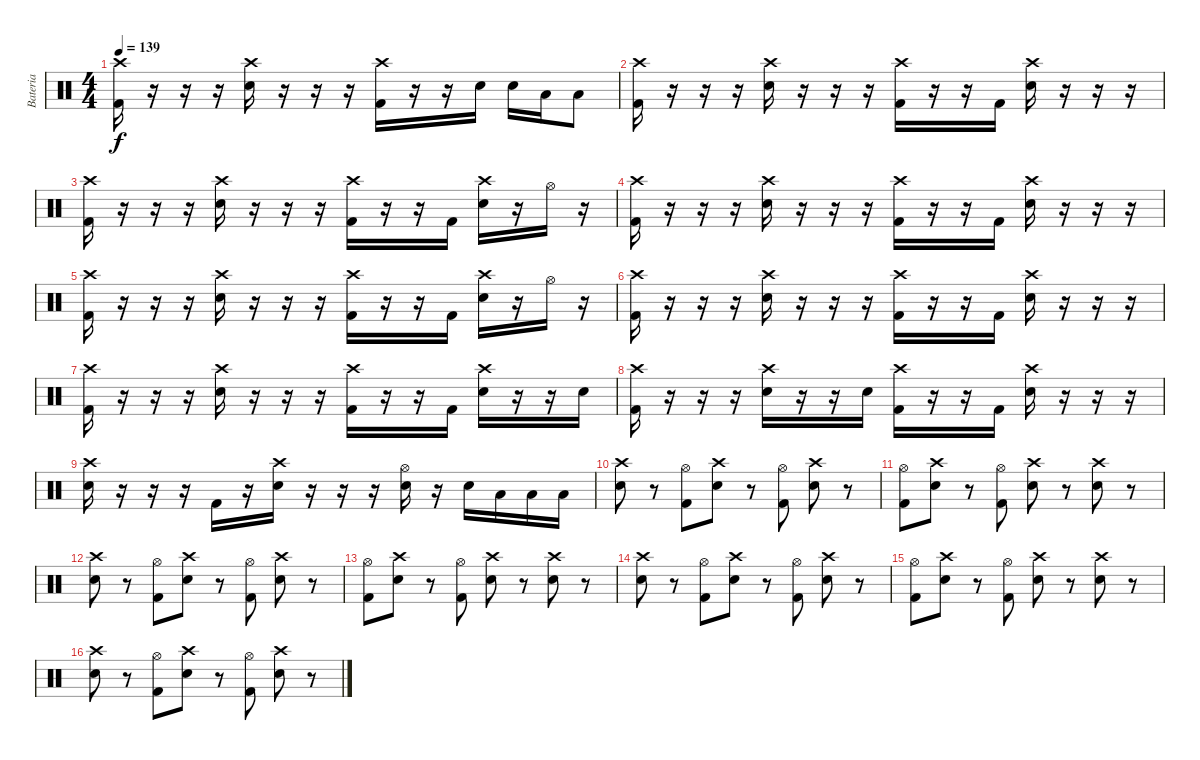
\track ("Bateria" "Bateria") {instrument percussion}
\staff {score}
\articulation defaults
\ts (4 4)
\tempo 139
\clef neutral
\ks c
("Crash high (hit)" "Kick (hit) 2").16{dy f} r.16 r.16 r.16 ("Crash high (hit)" "Electric Snare (hit)").16 r.16 r.16 r.16 ("Crash high (hit)" "Kick (hit) 2").16 r.16 r.16 "Electric Snare (hit)".16 "Electric Snare (hit)".16 "Low Tom (hit)".16 "Low Tom (hit)".8 |
("Crash high (hit)" "Kick (hit) 2").16 r.16 r.16 r.16 ("Crash high (hit)" "Electric Snare (hit)").16 r.16 r.16 r.16 ("Crash high (hit)" "Kick (hit) 2").16 r.16 r.16 "Kick (hit) 2".16 ("Crash high (hit)" "Electric Snare (hit)").16 r.16 r.16 r.16 |
("Crash high (hit)" "Kick (hit) 2").16 r.16 r.16 r.16 ("Crash high (hit)" "Electric Snare (hit)").16 r.16 r.16 r.16 ("Crash high (hit)" "Kick (hit) 2").16 r.16 r.16 "Kick (hit) 2".16 ("Crash high (hit)" "Electric Snare (hit)").16 r.16 "Hi-Hat (open)".16 r.16 |
("Crash high (hit)" "Kick (hit) 2").16 r.16 r.16 r.16 ("Crash high (hit)" "Electric Snare (hit)").16 r.16 r.16 r.16 ("Crash high (hit)" "Kick (hit) 2").16 r.16 r.16 "Kick (hit) 2".16 ("Crash high (hit)" "Electric Snare (hit)").16 r.16 r.16 r.16 |
("Crash high (hit)" "Kick (hit) 2").16 r.16 r.16 r.16 ("Crash high (hit)" "Electric Snare (hit)").16 r.16 r.16 r.16 ("Crash high (hit)" "Kick (hit) 2").16 r.16 r.16 "Kick (hit) 2".16 ("Crash high (hit)" "Electric Snare (hit)").16 r.16 "Hi-Hat (open)".16 r.16 |
("Crash high (hit)" "Kick (hit) 2").16 r.16 r.16 r.16 ("Crash high (hit)" "Electric Snare (hit)").16 r.16 r.16 r.16 ("Crash high (hit)" "Kick (hit) 2").16 r.16 r.16 "Kick (hit) 2".16 ("Crash high (hit)" "Electric Snare (hit)").16 r.16 r.16 r.16 |
("Crash high (hit)" "Kick (hit) 2").16 r.16 r.16 r.16 ("Crash high (hit)" "Electric Snare (hit)").16 r.16 r.16 r.16 ("Crash high (hit)" "Kick (hit) 2").16 r.16 r.16 "Kick (hit) 2".16 ("Crash high (hit)" "Electric Snare (hit)").16 r.16 r.16 "Electric Snare (hit)".16 |
("Crash high (hit)" "Kick (hit) 2").16 r.16 r.16 r.16 ("Crash high (hit)" "Electric Snare (hit)").16 r.16 r.16 "Electric Snare (hit)".16 ("Crash high (hit)" "Kick (hit) 2").16 r.16 r.16 "Kick (hit) 2".16 ("Crash high (hit)" "Electric Snare (hit)").16 r.16 r.16 r.16 |
("Crash high (hit)" "Electric Snare (hit)").16 r.16 r.16 r.16 "Kick (hit) 2".16 r.16 ("Crash high (hit)" "Electric Snare (hit)").16 r.16 r.16 r.16 ("Hi-Hat (open)" "Electric Snare (hit)").16 r.16 "Electric Snare (hit)".16 "Low Tom (hit)".16 "Low Tom (hit)".16 "Low Tom (hit)".16 |
("Crash high (hit)" "Electric Snare (hit)").8 r.8 ("Hi-Hat (open)" "Kick (hit) 2").8 ("Crash high (hit)" "Electric Snare (hit)").8 r.8 ("Hi-Hat (open)" "Kick (hit) 2").8 ("Crash high (hit)" "Electric Snare (hit)").8 r.8 |
("Hi-Hat (open)" "Kick (hit) 2").8 ("Crash high (hit)" "Electric Snare (hit)").8 r.8 ("Hi-Hat (open)" "Kick (hit) 2").8 ("Crash high (hit)" "Electric Snare (hit)").8 r.8 ("Crash high (hit)" "Electric Snare (hit)").8 r.8 |
("Crash high (hit)" "Electric Snare (hit)").8 r.8 ("Hi-Hat (open)" "Kick (hit) 2").8 ("Crash high (hit)" "Electric Snare (hit)").8 r.8 ("Hi-Hat (open)" "Kick (hit) 2").8 ("Crash high (hit)" "Electric Snare (hit)").8 r.8 |
("Hi-Hat (open)" "Kick (hit) 2").8 ("Crash high (hit)" "Electric Snare (hit)").8 r.8 ("Hi-Hat (open)" "Kick (hit) 2").8 ("Crash high (hit)" "Electric Snare (hit)").8 r.8 ("Crash high (hit)" "Electric Snare (hit)").8 r.8 |
("Crash high (hit)" "Electric Snare (hit)").8 r.8 ("Hi-Hat (open)" "Kick (hit) 2").8 ("Crash high (hit)" "Electric Snare (hit)").8 r.8 ("Hi-Hat (open)" "Kick (hit) 2").8 ("Crash high (hit)" "Electric Snare (hit)").8 r.8 |
("Hi-Hat (open)" "Kick (hit) 2").8 ("Crash high (hit)" "Electric Snare (hit)").8 r.8 ("Hi-Hat (open)" "Kick (hit) 2").8 ("Crash high (hit)" "Electric Snare (hit)").8 r.8 ("Crash high (hit)" "Electric Snare (hit)").8 r.8 |
("Crash high (hit)" "Electric Snare (hit)").8 r.8 ("Hi-Hat (open)" "Kick (hit) 2").8 ("Crash high (hit)" "Electric Snare (hit)").8 r.8 ("Hi-Hat (open)" "Kick (hit) 2").8 ("Crash high (hit)" "Electric Snare (hit)").8 r.8
